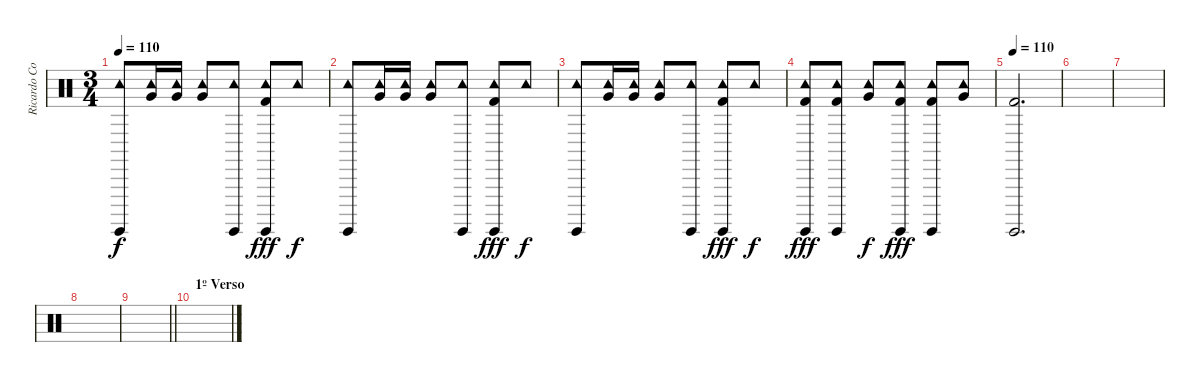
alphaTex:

\track ("Ricardo Confessori" "Ricardo Co") {instrument percussion}
\staff {score}
\articulation defaults
\ts (3 4)
\tempo 110
\clef neutral
\ks c
("Tambourine (hit)" "Surdo (hit)").8{dy f} ("Tambourine (hit)" "Very Low Tom (hit)").16 ("Tambourine (hit)" "Very Low Tom (hit)").16 ("Tambourine (hit)" "Very Low Tom (hit)").8 ("Tambourine (hit)" "Surdo (hit)").8 ("Tambourine (hit)" "Surdo (hit)" "Kick (hit) 2").8{dy fff} "Tambourine (hit)".8{dy f} |
("Tambourine (hit)" "Surdo (hit)").8 ("Tambourine (hit)" "Very Low Tom (hit)").16 ("Tambourine (hit)" "Very Low Tom (hit)").16 ("Tambourine (hit)" "Very Low Tom (hit)").8 ("Tambourine (hit)" "Surdo (hit)").8 ("Tambourine (hit)" "Surdo (hit)" "Kick (hit) 2").8{dy fff} "Tambourine (hit)".8{dy f} |
("Tambourine (hit)" "Surdo (hit)").8 ("Tambourine (hit)" "Very Low Tom (hit)").16 ("Tambourine (hit)" "Very Low Tom (hit)").16 ("Tambourine (hit)" "Very Low Tom (hit)").8 ("Tambourine (hit)" "Surdo (hit)").8 ("Tambourine (hit)" "Surdo (hit)" "Kick (hit) 2").8{dy fff} "Tambourine (hit)".8{dy f} |
("Tambourine (hit)" "Surdo (hit)" "Kick (hit) 2").8{dy fff} ("Tambourine (hit)" "Surdo (hit)" "Kick (hit) 2").8 ("Tambourine (hit)" "Very Low Tom (hit)").8{dy f} ("Tambourine (hit)" "Surdo (hit)" "Kick (hit) 2").8{dy fff} ("Tambourine (hit)" "Surdo (hit)" "Kick (hit) 2").8 ("Tambourine (hit)" "Very Low Tom (hit)").8 |
\tempo 110
("Surdo (hit)" "Kick (hit) 2").2{d} |
|
|
|
\barLineRight lightlight
|
\section ("" "1º Verso")
